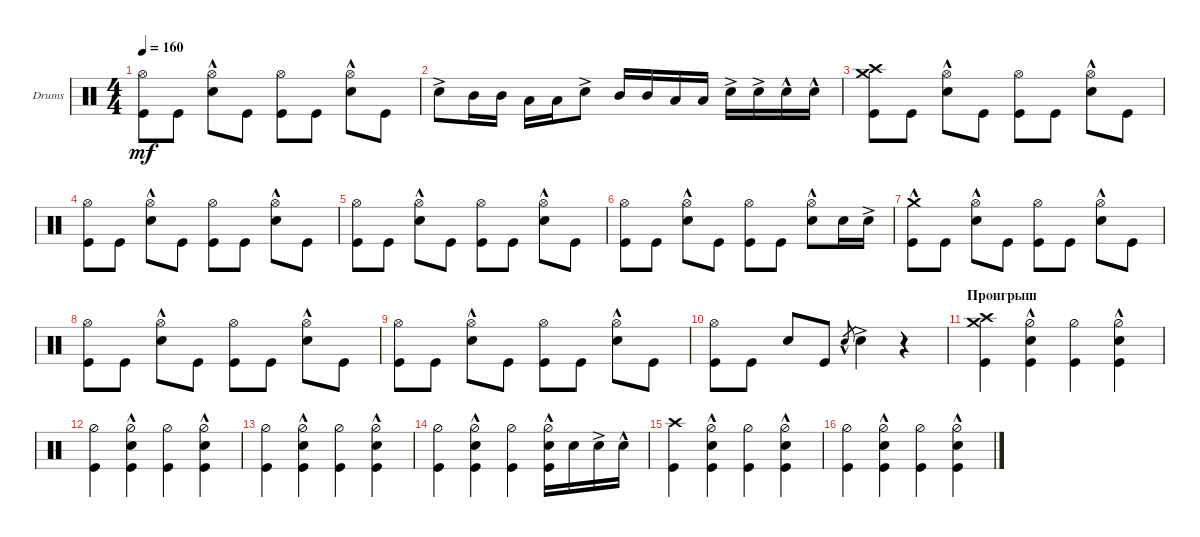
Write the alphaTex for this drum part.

\defaultSystemsLayout 4
\bracketExtendMode groupsimilarinstruments
\firstSystemTrackNameOrientation horizontal
\otherSystemsTrackNameOrientation horizontal
\track ("Drumkit" "Drums") {instrument percussion}
\staff {score}
\articulation defaults
\ts (4 4)
\tempo 160
\clef neutral
\ks c
("Kick (hit)" "Hi-Hat (open)").8{dy mf} "Kick (hit)".8 ("Snare (hit) 2"{hac} "Hi-Hat (open)").8 "Kick (hit)".8 ("Kick (hit)" "Hi-Hat (open)").8 "Kick (hit)".8 ("Snare (hit) 2"{hac} "Hi-Hat (open)").8 "Kick (hit)".8 |
"Snare (hit) 2"{ac}.8 "Mid Tom (hit)".16 "Mid Tom (hit)".16 "Low Tom (hit)".16 "Low Tom (hit)".16 "Snare (hit) 2"{ac}.8 "Mid Tom (hit)".16 "Mid Tom (hit)".16 "Low Tom (hit)".16 "Low Tom (hit)".16 "Snare (hit) 2"{ac}.16 "Snare (hit) 2"{ac}.16 "Snare (hit) 2"{hac}.16 "Snare (hit) 2"{hac}.16 |
("Kick (hit)" "Crash high (hit)" "Crash medium (hit)").8 "Kick (hit)".8 ("Snare (hit) 2"{hac} "Hi-Hat (open)").8 "Kick (hit)".8 ("Kick (hit)" "Hi-Hat (open)").8 "Kick (hit)".8 ("Snare (hit) 2"{hac} "Hi-Hat (open)").8 "Kick (hit)".8 |
("Kick (hit)" "Hi-Hat (open)").8 "Kick (hit)".8 ("Snare (hit) 2"{hac} "Hi-Hat (open)").8 "Kick (hit)".8 ("Kick (hit)" "Hi-Hat (open)").8 "Kick (hit)".8 ("Snare (hit) 2"{hac} "Hi-Hat (open)").8 "Kick (hit)".8 |
("Kick (hit)" "Hi-Hat (open)").8 "Kick (hit)".8 ("Snare (hit) 2"{hac} "Hi-Hat (open)").8 "Kick (hit)".8 ("Kick (hit)" "Hi-Hat (open)").8 "Kick (hit)".8 ("Snare (hit) 2"{hac} "Hi-Hat (open)").8 "Kick (hit)".8 |
("Kick (hit)" "Hi-Hat (open)").8 "Kick (hit)".8 ("Snare (hit) 2"{hac} "Hi-Hat (open)").8 "Kick (hit)".8 ("Kick (hit)" "Hi-Hat (open)").8 "Kick (hit)".8 ("Snare (hit) 2"{hac} "Hi-Hat (open)").8 "Snare (hit) 2".16 "Snare (hit) 2"{ac}.16 |
("Kick (hit)" "Crash medium (hit)"{hac}).8 "Kick (hit)".8 ("Snare (hit) 2"{hac} "Hi-Hat (open)").8 "Kick (hit)".8 ("Kick (hit)" "Hi-Hat (open)").8 "Kick (hit)".8 ("Snare (hit) 2"{hac} "Hi-Hat (open)").8 "Kick (hit)".8 |
("Kick (hit)" "Hi-Hat (open)").8 "Kick (hit)".8 ("Snare (hit) 2"{hac} "Hi-Hat (open)").8 "Kick (hit)".8 ("Kick (hit)" "Hi-Hat (open)").8 "Kick (hit)".8 ("Snare (hit) 2"{hac} "Hi-Hat (open)").8 "Kick (hit)".8 |
("Kick (hit)" "Hi-Hat (open)").8 "Kick (hit)".8 ("Snare (hit) 2"{hac} "Hi-Hat (open)").8 "Kick (hit)".8 ("Kick (hit)" "Hi-Hat (open)").8 "Kick (hit)".8 ("Snare (hit) 2"{hac} "Hi-Hat (open)").8 "Kick (hit)".8 |
("Kick (hit)" "Hi-Hat (open)").8 "Kick (hit)".8 "Snare (hit) 2".8 "Kick (hit)".8 "Snare (hit) 2"{hac}.8{gr} "Snare (hit) 2"{ac}.4 r.4 |
\section ("" "Проигрыш")
("Kick (hit)" "Crash medium (hit)" "Crash high (hit)").4 ("Kick (hit)" "Snare (hit) 2"{hac} "Hi-Hat (half)").4 ("Kick (hit)" "Hi-Hat (half)").4 ("Kick (hit)" "Snare (hit) 2"{hac} "Hi-Hat (half)").4 |
("Kick (hit)" "Hi-Hat (half)").4 ("Kick (hit)" "Snare (hit) 2"{hac} "Hi-Hat (half)").4 ("Kick (hit)" "Hi-Hat (half)").4 ("Kick (hit)" "Snare (hit) 2"{hac} "Hi-Hat (half)").4 |
("Kick (hit)" "Hi-Hat (half)").4 ("Kick (hit)" "Snare (hit) 2"{hac} "Hi-Hat (half)").4 ("Kick (hit)" "Hi-Hat (half)").4 ("Kick (hit)" "Snare (hit) 2"{hac} "Hi-Hat (half)").4 |
("Kick (hit)" "Hi-Hat (half)").4 ("Kick (hit)" "Snare (hit) 2"{hac} "Hi-Hat (half)").4 ("Kick (hit)" "Hi-Hat (half)").4 ("Kick (hit)" "Snare (hit) 2"{hac} "Hi-Hat (half)").16 "Snare (hit) 2".16 "Snare (hit) 2"{ac}.16 "Snare (hit) 2"{hac}.16 |
("Kick (hit)" "Crash high (hit)").4 ("Kick (hit)" "Snare (hit) 2"{hac} "Hi-Hat (half)").4 ("Kick (hit)" "Hi-Hat (half)").4 ("Kick (hit)" "Snare (hit) 2"{hac} "Hi-Hat (half)").4 |
("Kick (hit)" "Hi-Hat (half)").4 ("Kick (hit)" "Snare (hit) 2"{hac} "Hi-Hat (half)").4 ("Kick (hit)" "Hi-Hat (half)").4 ("Kick (hit)" "Snare (hit) 2"{hac} "Hi-Hat (half)").4
